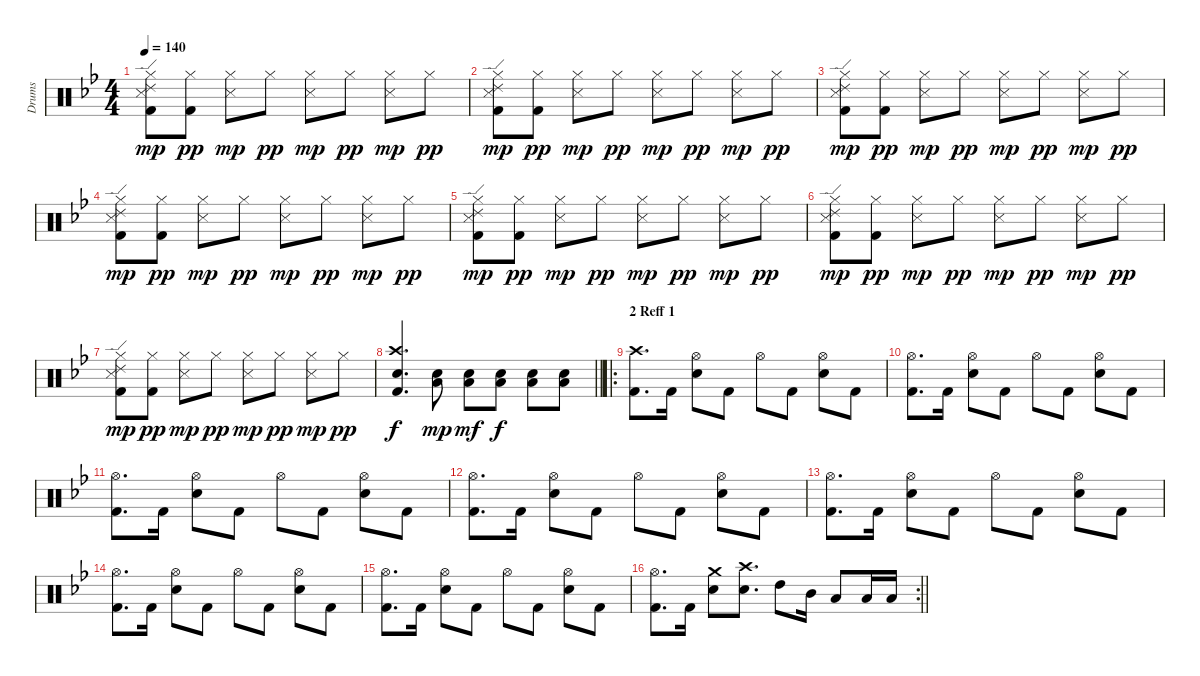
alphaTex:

\track ("Drums" "Drums") {instrument percussion}
\staff {score}
\articulation defaults
\ts (4 4)
\tempo 140
\clef neutral
\ks bb
("Ride (edge) 2" "Kick (hit) 2" "Snare (side stick) 3" "Hi-Hat (closed)").8{dy mp} ("Kick (hit) 2" "Hi-Hat (closed)").8{dy pp} ("Snare (side stick) 3" "Hi-Hat (closed)").8{dy mp} "Hi-Hat (closed)".8{dy pp} ("Hi-Hat (closed)" "Snare (side stick) 3").8{dy mp} "Hi-Hat (closed)".8{dy pp} ("Hi-Hat (closed)" "Snare (side stick) 3").8{dy mp} "Hi-Hat (closed)".8{dy pp} |
("Ride (edge) 2" "Kick (hit) 2" "Snare (side stick) 3" "Hi-Hat (closed)").8{dy mp} ("Kick (hit) 2" "Hi-Hat (closed)").8{dy pp} ("Snare (side stick) 3" "Hi-Hat (closed)").8{dy mp} "Hi-Hat (closed)".8{dy pp} ("Hi-Hat (closed)" "Snare (side stick) 3").8{dy mp} "Hi-Hat (closed)".8{dy pp} ("Hi-Hat (closed)" "Snare (side stick) 3").8{dy mp} "Hi-Hat (closed)".8{dy pp} |
("Ride (edge) 2" "Kick (hit) 2" "Snare (side stick) 3" "Hi-Hat (closed)").8{dy mp} ("Kick (hit) 2" "Hi-Hat (closed)").8{dy pp} ("Snare (side stick) 3" "Hi-Hat (closed)").8{dy mp} "Hi-Hat (closed)".8{dy pp} ("Hi-Hat (closed)" "Snare (side stick) 3").8{dy mp} "Hi-Hat (closed)".8{dy pp} ("Hi-Hat (closed)" "Snare (side stick) 3").8{dy mp} "Hi-Hat (closed)".8{dy pp} |
("Ride (edge) 2" "Kick (hit) 2" "Snare (side stick) 3" "Hi-Hat (closed)").8{dy mp} ("Kick (hit) 2" "Hi-Hat (closed)").8{dy pp} ("Snare (side stick) 3" "Hi-Hat (closed)").8{dy mp} "Hi-Hat (closed)".8{dy pp} ("Hi-Hat (closed)" "Snare (side stick) 3").8{dy mp} "Hi-Hat (closed)".8{dy pp} ("Hi-Hat (closed)" "Snare (side stick) 3").8{dy mp} "Hi-Hat (closed)".8{dy pp} |
("Ride (edge) 2" "Kick (hit) 2" "Snare (side stick) 3" "Hi-Hat (closed)").8{dy mp} ("Kick (hit) 2" "Hi-Hat (closed)").8{dy pp} ("Snare (side stick) 3" "Hi-Hat (closed)").8{dy mp} "Hi-Hat (closed)".8{dy pp} ("Hi-Hat (closed)" "Snare (side stick) 3").8{dy mp} "Hi-Hat (closed)".8{dy pp} ("Hi-Hat (closed)" "Snare (side stick) 3").8{dy mp} "Hi-Hat (closed)".8{dy pp} |
("Ride (edge) 2" "Kick (hit) 2" "Snare (side stick) 3" "Hi-Hat (closed)").8{dy mp} ("Kick (hit) 2" "Hi-Hat (closed)").8{dy pp} ("Snare (side stick) 3" "Hi-Hat (closed)").8{dy mp} "Hi-Hat (closed)".8{dy pp} ("Hi-Hat (closed)" "Snare (side stick) 3").8{dy mp} "Hi-Hat (closed)".8{dy pp} ("Hi-Hat (closed)" "Snare (side stick) 3").8{dy mp} "Hi-Hat (closed)".8{dy pp} |
("Ride (edge) 2" "Kick (hit) 2" "Snare (side stick) 3" "Hi-Hat (closed)").8{dy mp} ("Kick (hit) 2" "Hi-Hat (closed)").8{dy pp} ("Snare (side stick) 3" "Hi-Hat (closed)").8{dy mp} "Hi-Hat (closed)".8{dy pp} ("Hi-Hat (closed)" "Snare (side stick) 3").8{dy mp} "Hi-Hat (closed)".8{dy pp} ("Hi-Hat (closed)" "Snare (side stick) 3").8{dy mp} "Hi-Hat (closed)".8{dy pp} |
\barLineRight lightlight
("Crash high (hit)" "Kick (hit) 2" "Electric Snare (hit)").4{d dy f} ("Low Floor Tom (hit)" "Electric Snare (hit)").8{dy mp} ("Low Floor Tom (hit)" "Electric Snare (hit)").8{dy mf} ("Low Floor Tom (hit)" "Electric Snare (hit)").8{dy f} ("Low Floor Tom (hit)" "Electric Snare (hit)").8 ("Low Floor Tom (hit)" "Electric Snare (hit)").8 |
\ro
\section ("" "2 Reff 1")
("Crash high (hit)" "Kick (hit) 2").8{d} "Kick (hit) 2".16 ("Electric Snare (hit)" "Hi-Hat (open)").8 "Kick (hit) 2".8 "Hi-Hat (open)".8 "Kick (hit) 2".8 ("Hi-Hat (open)" "Electric Snare (hit)").8 "Kick (hit) 2".8 |
("Hi-Hat (open)" "Kick (hit) 2").8{d} "Kick (hit) 2".16 ("Electric Snare (hit)" "Hi-Hat (open)").8 "Kick (hit) 2".8 "Hi-Hat (open)".8 "Kick (hit) 2".8 ("Hi-Hat (open)" "Electric Snare (hit)").8 "Kick (hit) 2".8 |
("Hi-Hat (open)" "Kick (hit) 2").8{d} "Kick (hit) 2".16 ("Electric Snare (hit)" "Hi-Hat (open)").8 "Kick (hit) 2".8 "Hi-Hat (open)".8 "Kick (hit) 2".8 ("Hi-Hat (open)" "Electric Snare (hit)").8 "Kick (hit) 2".8 |
("Hi-Hat (open)" "Kick (hit) 2").8{d} "Kick (hit) 2".16 ("Electric Snare (hit)" "Hi-Hat (open)").8 "Kick (hit) 2".8 "Hi-Hat (open)".8 "Kick (hit) 2".8 ("Hi-Hat (open)" "Electric Snare (hit)").8 "Kick (hit) 2".8 |
("Hi-Hat (open)" "Kick (hit) 2").8{d} "Kick (hit) 2".16 ("Electric Snare (hit)" "Hi-Hat (open)").8 "Kick (hit) 2".8 "Hi-Hat (open)".8 "Kick (hit) 2".8 ("Hi-Hat (open)" "Electric Snare (hit)").8 "Kick (hit) 2".8 |
("Hi-Hat (open)" "Kick (hit) 2").8{d} "Kick (hit) 2".16 ("Electric Snare (hit)" "Hi-Hat (open)").8 "Kick (hit) 2".8 "Hi-Hat (open)".8 "Kick (hit) 2".8 ("Hi-Hat (open)" "Electric Snare (hit)").8 "Kick (hit) 2".8 |
("Hi-Hat (open)" "Kick (hit) 2").8{d} "Kick (hit) 2".16 ("Electric Snare (hit)" "Hi-Hat (open)").8 "Kick (hit) 2".8 "Hi-Hat (open)".8 "Kick (hit) 2".8 ("Hi-Hat (open)" "Electric Snare (hit)").8 "Kick (hit) 2".8 |
\rc 2
\barLineRight lightlight
("Hi-Hat (open)" "Kick (hit) 2").8{d} "Kick (hit) 2".16 ("Electric Snare (hit)" "Crash medium (hit)").8 ("Electric Snare (hit)" "Crash high (hit)").8{d} "High Tom (hit)".8 "Mid Tom (hit)".16 "Low Tom (hit)".8 "Low Floor Tom (hit)".16 "Low Floor Tom (hit)".16
